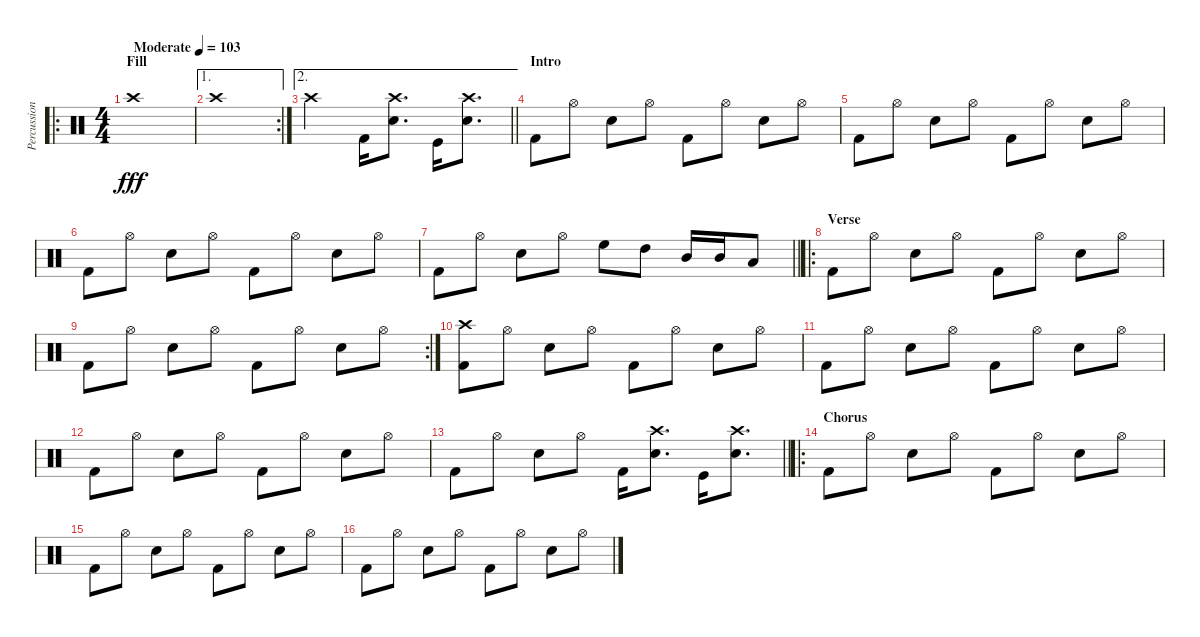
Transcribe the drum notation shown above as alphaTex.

\track ("Percussion" "Percussion") {instrument percussion}
\staff {score}
\articulation defaults
\ro
\ts (4 4)
\section ("" "Fill")
\tempo (103 "Moderate")
\clef neutral
\ks c "Crash high (hit)".1{dy fff volume 2}
|
\ae 1
\rc 2 "Crash high (hit)".1
|
\ae 2
\barLineRight lightlight "Crash high (hit)".2 "Kick (hit) 2".16{volume 13}
("Crash high (hit)" "Electric Snare (hit)").8{d} "Kick (hit)".16 ("Crash high (hit)" "Snare (hit) 2").8{d} |
\section ("" "Intro")
"Kick (hit) 2".8 "Hi-Hat (open)".8 "Snare (hit) 2".8 "Hi-Hat (open)".8 "Kick (hit) 2".8 "Hi-Hat (open)".8 "Snare (hit) 2".8 "Hi-Hat (open)".8 |
"Kick (hit) 2".8 "Hi-Hat (open)".8 "Snare (hit) 2".8 "Hi-Hat (open)".8 "Kick (hit) 2".8 "Hi-Hat (open)".8 "Snare (hit) 2".8 "Hi-Hat (open)".8 |
"Kick (hit) 2".8 "Hi-Hat (open)".8 "Snare (hit) 2".8 "Hi-Hat (open)".8 "Kick (hit) 2".8 "Hi-Hat (open)".8 "Snare (hit) 2".8 "Hi-Hat (open)".8 |
\barLineRight lightlight "Kick (hit) 2".8 "Hi-Hat (open)".8 "Snare (hit) 2".8 "Hi-Hat (open)".8 "High Floor Tom (hit)".8 "High Tom (hit)".8 "Mid Tom (hit)".16 "Mid Tom (hit)".16 "Low Tom (hit)".8
|
\ro
\section ("" "Verse")
"Kick (hit) 2".8 "Hi-Hat (open)".8 "Snare (hit) 2".8 "Hi-Hat (open)".8 "Kick (hit) 2".8 "Hi-Hat (open)".8 "Snare (hit) 2".8 "Hi-Hat (open)".8 |
\rc 2 "Kick (hit) 2".8 "Hi-Hat (open)".8 "Snare (hit) 2".8 "Hi-Hat (open)".8 "Kick (hit) 2".8 "Hi-Hat (open)".8 "Snare (hit) 2".8 "Hi-Hat (open)".8
|
("Crash high (hit)" "Kick (hit) 2").8 "Hi-Hat (open)".8 "Snare (hit) 2".8 "Hi-Hat (open)".8 "Kick (hit) 2".8 "Hi-Hat (open)".8 "Snare (hit) 2".8 "Hi-Hat (open)".8 |
"Kick (hit) 2".8 "Hi-Hat (open)".8 "Snare (hit) 2".8 "Hi-Hat (open)".8 "Kick (hit) 2".8 "Hi-Hat (open)".8 "Snare (hit) 2".8 "Hi-Hat (open)".8 |
"Kick (hit) 2".8 "Hi-Hat (open)".8 "Snare (hit) 2".8 "Hi-Hat (open)".8 "Kick (hit) 2".8 "Hi-Hat (open)".8 "Snare (hit) 2".8 "Hi-Hat (open)".8 |
\barLineRight lightlight "Kick (hit) 2".8 "Hi-Hat (open)".8 "Snare (hit) 2".8 "Hi-Hat (open)".8 "Kick (hit) 2".16{volume 13}
("Crash high (hit)" "Electric Snare (hit)").8{d} "Kick (hit)".16 ("Crash high (hit)" "Snare (hit) 2").8{d} |
\ro
\section ("" "Chorus")
"Kick (hit) 2".8 "Hi-Hat (open)".8 "Snare (hit) 2".8 "Hi-Hat (open)".8 "Kick (hit) 2".8 "Hi-Hat (open)".8 "Snare (hit) 2".8 "Hi-Hat (open)".8 |
"Kick (hit) 2".8 "Hi-Hat (open)".8 "Snare (hit) 2".8 "Hi-Hat (open)".8 "Kick (hit) 2".8 "Hi-Hat (open)".8 "Snare (hit) 2".8 "Hi-Hat (open)".8 |
"Kick (hit) 2".8 "Hi-Hat (open)".8 "Snare (hit) 2".8 "Hi-Hat (open)".8 "Kick (hit) 2".8 "Hi-Hat (open)".8 "Snare (hit) 2".8 "Hi-Hat (open)".8
